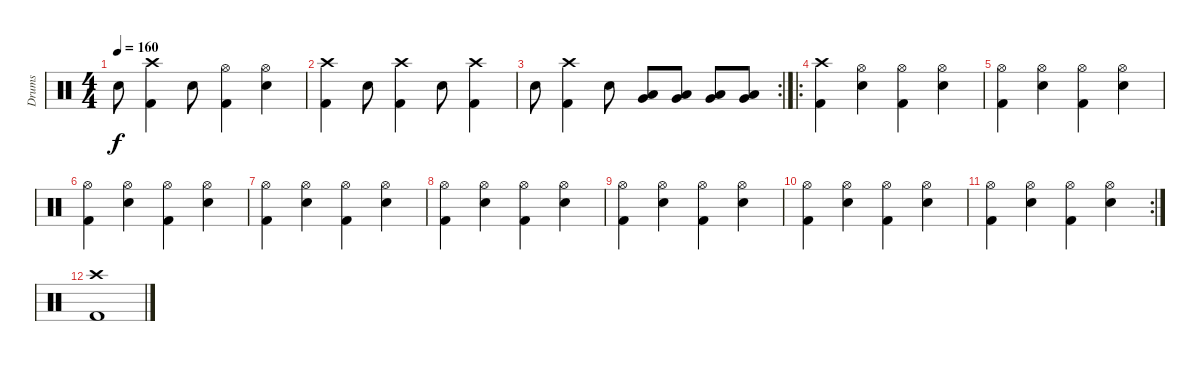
\track ("Drums" "Drums") {instrument percussion}
\staff {score}
\articulation defaults
\ts (4 4)
\tempo 160
\clef neutral
\ks c "Snare (hit) 2".8{dy f}
("Crash high (hit)" "Kick (hit) 2").4 "Snare (hit) 2".8 ("Hi-Hat (open)" "Kick (hit) 2").4 ("Hi-Hat (open)" "Snare (hit) 2").4 |
("Crash high (hit)" "Kick (hit) 2").4 "Snare (hit) 2".8 ("Crash high (hit)" "Kick (hit) 2").4 "Snare (hit) 2".8 ("Crash high (hit)" "Kick (hit) 2").4 |
\rc 2 "Snare (hit) 2".8
("Crash high (hit)" "Kick (hit) 2").4 "Snare (hit) 2".8 ("Low Tom (hit)" "Very Low Tom (hit)").8 ("Low Tom (hit)" "Very Low Tom (hit)").8 ("Low Tom (hit)" "Very Low Tom (hit)").8 ("Low Tom (hit)" "Very Low Tom (hit)").8 |
\ro
("Crash high (hit)" "Kick (hit) 2").4 ("Hi-Hat (open)" "Snare (hit) 2").4 ("Hi-Hat (open)" "Kick (hit) 2").4 ("Hi-Hat (open)" "Snare (hit) 2").4 |
("Hi-Hat (open)" "Kick (hit) 2").4 ("Hi-Hat (open)" "Snare (hit) 2").4 ("Hi-Hat (open)" "Kick (hit) 2").4 ("Hi-Hat (open)" "Snare (hit) 2").4 |
("Hi-Hat (open)" "Kick (hit) 2").4 ("Hi-Hat (open)" "Snare (hit) 2").4 ("Hi-Hat (open)" "Kick (hit) 2").4 ("Hi-Hat (open)" "Snare (hit) 2").4 |
("Hi-Hat (open)" "Kick (hit) 2").4 ("Hi-Hat (open)" "Snare (hit) 2").4 ("Hi-Hat (open)" "Kick (hit) 2").4 ("Hi-Hat (open)" "Snare (hit) 2").4 |
("Hi-Hat (open)" "Kick (hit) 2").4 ("Hi-Hat (open)" "Snare (hit) 2").4 ("Hi-Hat (open)" "Kick (hit) 2").4 ("Hi-Hat (open)" "Snare (hit) 2").4 |
("Hi-Hat (open)" "Kick (hit) 2").4 ("Hi-Hat (open)" "Snare (hit) 2").4 ("Hi-Hat (open)" "Kick (hit) 2").4 ("Hi-Hat (open)" "Snare (hit) 2").4 |
("Hi-Hat (open)" "Kick (hit) 2").4 ("Hi-Hat (open)" "Snare (hit) 2").4 ("Hi-Hat (open)" "Kick (hit) 2").4 ("Hi-Hat (open)" "Snare (hit) 2").4 |
\rc 2
("Hi-Hat (open)" "Kick (hit) 2").4 ("Hi-Hat (open)" "Snare (hit) 2").4 ("Hi-Hat (open)" "Kick (hit) 2").4 ("Hi-Hat (open)" "Snare (hit) 2").4 |
("Crash high (hit)" "Kick (hit) 2").1
